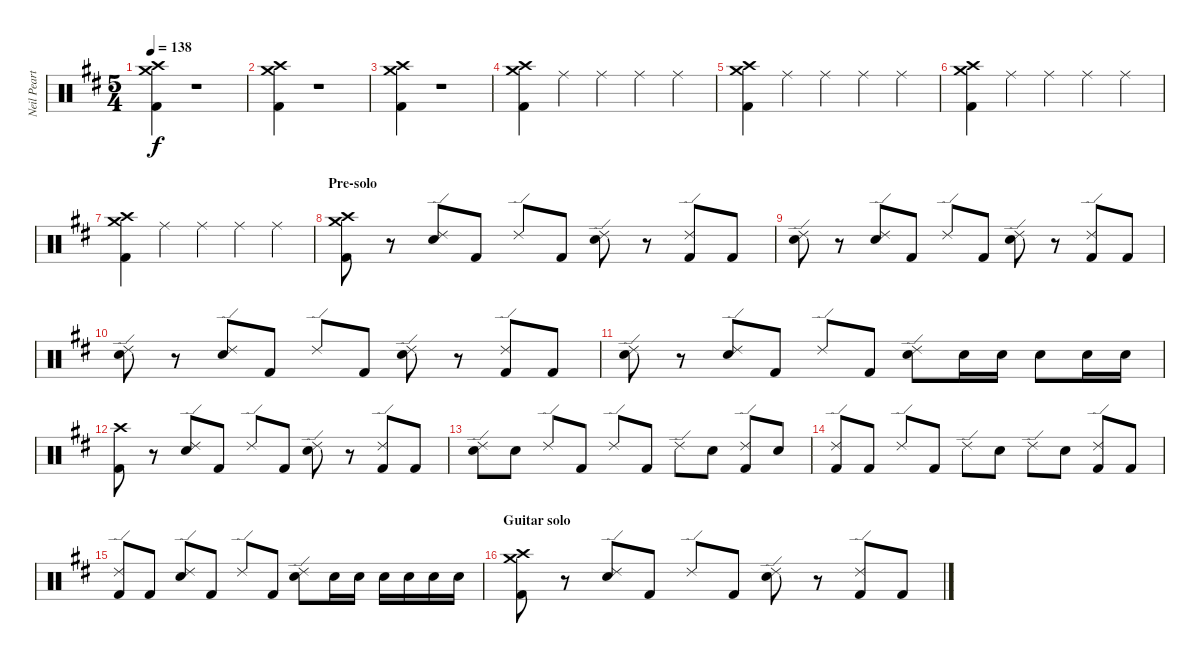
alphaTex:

\track ("Neil Peart" "Neil Peart") {instrument percussion}
\staff {score}
\articulation defaults
\ts (5 4)
\tempo 138
\clef neutral
\ks d
("Crash high (hit)" "Crash medium (hit)" "Kick (hit) 2").4{dy f} r.1 |
("Crash high (hit)" "Crash medium (hit)" "Kick (hit) 2").4 r.1 |
("Crash high (hit)" "Crash medium (hit)" "Kick (hit) 2").4 r.1 |
("Crash high (hit)" "Crash medium (hit)" "Kick (hit) 2").4 "Ride (middle)".4 "Ride (middle)".4 "Ride (middle)".4 "Ride (middle)".4 |
("Crash high (hit)" "Crash medium (hit)" "Kick (hit) 2").4 "Ride (middle)".4 "Ride (middle)".4 "Ride (middle)".4 "Ride (middle)".4 |
("Crash high (hit)" "Crash medium (hit)" "Kick (hit) 2").4 "Ride (middle)".4 "Ride (middle)".4 "Ride (middle)".4 "Ride (middle)".4 |
("Crash high (hit)" "Crash medium (hit)" "Kick (hit) 2").4 "Ride (middle)".4 "Ride (middle)".4 "Ride (middle)".4 "Ride (middle)".4 |
\section ("" "Pre-solo")
("Crash medium (hit)" "Crash high (hit)" "Kick (hit) 2").8 r.8 ("Ride (edge) 2" "Electric Snare (hit)").8 "Kick (hit) 2".8 "Ride (edge) 2".8 "Kick (hit) 2".8 ("Ride (edge) 2" "Electric Snare (hit)").8 r.8 ("Ride (edge) 2" "Kick (hit) 2").8 "Kick (hit) 2".8 |
("Ride (edge) 2" "Electric Snare (hit)").8 r.8 ("Ride (edge) 2" "Electric Snare (hit)").8 "Kick (hit) 2".8 "Ride (edge) 2".8 "Kick (hit) 2".8 ("Ride (edge) 2" "Electric Snare (hit)").8 r.8 ("Ride (edge) 2" "Kick (hit) 2").8 "Kick (hit) 2".8 |
("Ride (edge) 2" "Electric Snare (hit)").8 r.8 ("Ride (edge) 2" "Electric Snare (hit)").8 "Kick (hit) 2".8 "Ride (edge) 2".8 "Kick (hit) 2".8 ("Ride (edge) 2" "Electric Snare (hit)").8 r.8 ("Ride (edge) 2" "Kick (hit) 2").8 "Kick (hit) 2".8 |
("Ride (edge) 2" "Electric Snare (hit)").8 r.8 ("Ride (edge) 2" "Electric Snare (hit)").8 "Kick (hit) 2".8 "Ride (edge) 2".8 "Kick (hit) 2".8 ("Ride (edge) 2" "Electric Snare (hit)").8 "Electric Snare (hit)".16 "Electric Snare (hit)".16 "Electric Snare (hit)".8 "Electric Snare (hit)".16 "Electric Snare (hit)".16 |
("Crash high (hit)" "Kick (hit) 2").8 r.8 ("Ride (edge) 2" "Electric Snare (hit)").8 "Kick (hit) 2".8 "Ride (edge) 2".8 "Kick (hit) 2".8 ("Ride (edge) 2" "Electric Snare (hit)").8 r.8 ("Ride (edge) 2" "Kick (hit) 2").8 "Kick (hit) 2".8 |
("Ride (edge) 2" "Electric Snare (hit)").8 "Electric Snare (hit)".8 "Ride (edge) 2".8 "Kick (hit) 2".8 "Ride (edge) 2".8 "Kick (hit) 2".8 "Ride (edge) 2".8 "Electric Snare (hit)".8 ("Ride (edge) 2" "Kick (hit) 2").8 "Electric Snare (hit)".8 |
("Ride (edge) 2" "Kick (hit) 2").8 "Kick (hit) 2".8 "Ride (edge) 2".8 "Kick (hit) 2".8 "Ride (edge) 2".8 "Electric Snare (hit)".8 "Ride (edge) 2".8 "Electric Snare (hit)".8 ("Ride (edge) 2" "Kick (hit) 2").8 "Kick (hit) 2".8 |
("Ride (edge) 2" "Kick (hit) 2").8 "Kick (hit) 2".8 ("Ride (edge) 2" "Electric Snare (hit)").8 "Kick (hit) 2".8 "Ride (edge) 2".8 "Kick (hit) 2".8 ("Ride (edge) 2" "Electric Snare (hit)").8 "Electric Snare (hit)".16 "Electric Snare (hit)".16 "Electric Snare (hit)".16 "Electric Snare (hit)".16 "Electric Snare (hit)".16 "Electric Snare (hit)".16 |
\section ("" "Guitar solo")
("Crash medium (hit)" "Crash high (hit)" "Kick (hit) 2").8 r.8 ("Ride (edge) 2" "Electric Snare (hit)").8 "Kick (hit) 2".8 "Ride (edge) 2".8 "Kick (hit) 2".8 ("Ride (edge) 2" "Electric Snare (hit)").8 r.8 ("Ride (edge) 2" "Kick (hit) 2").8 "Kick (hit) 2".8
